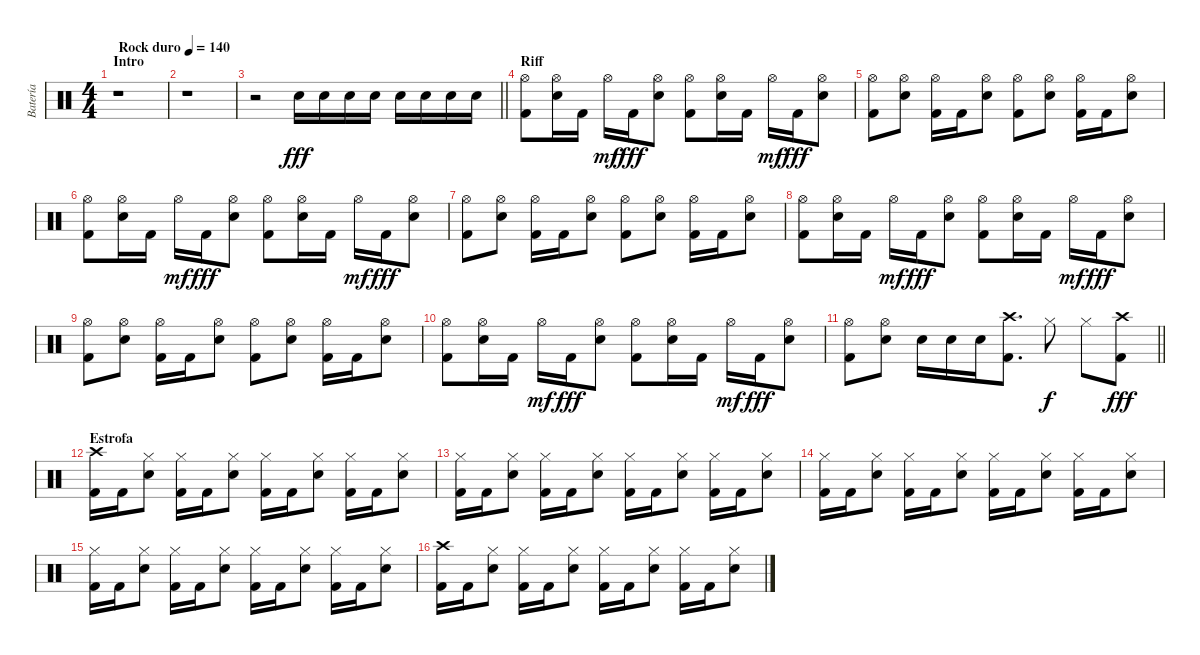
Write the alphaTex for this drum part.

\track ("Batería" "Batería") {instrument percussion}
\staff {score}
\articulation defaults
\ts (4 4)
\section ("" "Intro")
\tempo (140 "Rock duro")
\clef neutral
\ks c
r.1{dy fff} |
r.1 |
\barLineRight lightlight
r.2 "Electric Snare (hit)".16 "Electric Snare (hit)".16 "Electric Snare (hit)".16 "Electric Snare (hit)".16 "Electric Snare (hit)".16 "Electric Snare (hit)".16 "Electric Snare (hit)".16 "Electric Snare (hit)".16 |
\section ("" "Riff")
("Hi-Hat (open)" "Kick (hit) 2").8 ("Hi-Hat (open)" "Electric Snare (hit)").16 "Kick (hit) 2".16 "Hi-Hat (open)".16{dy mf} "Kick (hit) 2".16{dy fff} ("Hi-Hat (open)" "Electric Snare (hit)").8 ("Hi-Hat (open)" "Kick (hit) 2").8 ("Hi-Hat (open)" "Electric Snare (hit)").16 "Kick (hit) 2".16 "Hi-Hat (open)".16{dy mf} "Kick (hit) 2".16{dy fff} ("Hi-Hat (open)" "Electric Snare (hit)").8 |
("Hi-Hat (open)" "Kick (hit) 2").8 ("Hi-Hat (open)" "Electric Snare (hit)").8 ("Hi-Hat (open)" "Kick (hit) 2").16 "Kick (hit) 2".16 ("Hi-Hat (open)" "Electric Snare (hit)").8 ("Hi-Hat (open)" "Kick (hit) 2").8 ("Hi-Hat (open)" "Electric Snare (hit)").8 ("Hi-Hat (open)" "Kick (hit) 2").16 "Kick (hit) 2".16 ("Hi-Hat (open)" "Electric Snare (hit)").8 |
("Hi-Hat (open)" "Kick (hit) 2").8 ("Hi-Hat (open)" "Electric Snare (hit)").16 "Kick (hit) 2".16 "Hi-Hat (open)".16{dy mf} "Kick (hit) 2".16{dy fff} ("Hi-Hat (open)" "Electric Snare (hit)").8 ("Hi-Hat (open)" "Kick (hit) 2").8 ("Hi-Hat (open)" "Electric Snare (hit)").16 "Kick (hit) 2".16 "Hi-Hat (open)".16{dy mf} "Kick (hit) 2".16{dy fff} ("Hi-Hat (open)" "Electric Snare (hit)").8 |
("Hi-Hat (open)" "Kick (hit) 2").8 ("Hi-Hat (open)" "Electric Snare (hit)").8 ("Hi-Hat (open)" "Kick (hit) 2").16 "Kick (hit) 2".16 ("Hi-Hat (open)" "Electric Snare (hit)").8 ("Hi-Hat (open)" "Kick (hit) 2").8 ("Hi-Hat (open)" "Electric Snare (hit)").8 ("Hi-Hat (open)" "Kick (hit) 2").16 "Kick (hit) 2".16 ("Hi-Hat (open)" "Electric Snare (hit)").8 |
("Hi-Hat (open)" "Kick (hit) 2").8 ("Hi-Hat (open)" "Electric Snare (hit)").16 "Kick (hit) 2".16 "Hi-Hat (open)".16{dy mf} "Kick (hit) 2".16{dy fff} ("Hi-Hat (open)" "Electric Snare (hit)").8 ("Hi-Hat (open)" "Kick (hit) 2").8 ("Hi-Hat (open)" "Electric Snare (hit)").16 "Kick (hit) 2".16 "Hi-Hat (open)".16{dy mf} "Kick (hit) 2".16{dy fff} ("Hi-Hat (open)" "Electric Snare (hit)").8 |
("Hi-Hat (open)" "Kick (hit) 2").8 ("Hi-Hat (open)" "Electric Snare (hit)").8 ("Hi-Hat (open)" "Kick (hit) 2").16 "Kick (hit) 2".16 ("Hi-Hat (open)" "Electric Snare (hit)").8 ("Hi-Hat (open)" "Kick (hit) 2").8 ("Hi-Hat (open)" "Electric Snare (hit)").8 ("Hi-Hat (open)" "Kick (hit) 2").16 "Kick (hit) 2".16 ("Hi-Hat (open)" "Electric Snare (hit)").8 |
("Hi-Hat (open)" "Kick (hit) 2").8 ("Hi-Hat (open)" "Electric Snare (hit)").16 "Kick (hit) 2".16 "Hi-Hat (open)".16{dy mf} "Kick (hit) 2".16{dy fff} ("Hi-Hat (open)" "Electric Snare (hit)").8 ("Hi-Hat (open)" "Kick (hit) 2").8 ("Hi-Hat (open)" "Electric Snare (hit)").16 "Kick (hit) 2".16 "Hi-Hat (open)".16{dy mf} "Kick (hit) 2".16{dy fff} ("Hi-Hat (open)" "Electric Snare (hit)").8 |
\barLineRight lightlight
("Hi-Hat (open)" "Kick (hit) 2").8 ("Hi-Hat (open)" "Electric Snare (hit)").8 "Electric Snare (hit)".16 "Electric Snare (hit)".16 "Electric Snare (hit)".16 ("Crash high (hit)" "Kick (hit) 2").8{d} "Hi-Hat (closed)".8{dy f} "Hi-Hat (closed)".8 ("Crash high (hit)" "Kick (hit) 2").8{dy fff} |
\section ("" "Estrofa")
("Crash high (hit)" "Kick (hit) 2").16 "Kick (hit) 2".16 ("Hi-Hat (closed)" "Electric Snare (hit)").8 ("Hi-Hat (closed)" "Kick (hit) 2").16 "Kick (hit) 2".16 ("Hi-Hat (closed)" "Electric Snare (hit)").8 ("Hi-Hat (closed)" "Kick (hit) 2").16 "Kick (hit) 2".16 ("Hi-Hat (closed)" "Electric Snare (hit)").8 ("Hi-Hat (closed)" "Kick (hit) 2").16 "Kick (hit) 2".16 ("Hi-Hat (closed)" "Electric Snare (hit)").8 |
("Hi-Hat (closed)" "Kick (hit) 2").16 "Kick (hit) 2".16 ("Hi-Hat (closed)" "Electric Snare (hit)").8 ("Hi-Hat (closed)" "Kick (hit) 2").16 "Kick (hit) 2".16 ("Hi-Hat (closed)" "Electric Snare (hit)").8 ("Hi-Hat (closed)" "Kick (hit) 2").16 "Kick (hit) 2".16 ("Hi-Hat (closed)" "Electric Snare (hit)").8 ("Hi-Hat (closed)" "Kick (hit) 2").16 "Kick (hit) 2".16 ("Hi-Hat (closed)" "Electric Snare (hit)").8 |
("Hi-Hat (closed)" "Kick (hit) 2").16 "Kick (hit) 2".16 ("Hi-Hat (closed)" "Electric Snare (hit)").8 ("Hi-Hat (closed)" "Kick (hit) 2").16 "Kick (hit) 2".16 ("Hi-Hat (closed)" "Electric Snare (hit)").8 ("Hi-Hat (closed)" "Kick (hit) 2").16 "Kick (hit) 2".16 ("Hi-Hat (closed)" "Electric Snare (hit)").8 ("Hi-Hat (closed)" "Kick (hit) 2").16 "Kick (hit) 2".16 ("Hi-Hat (closed)" "Electric Snare (hit)").8 |
("Hi-Hat (closed)" "Kick (hit) 2").16 "Kick (hit) 2".16 ("Hi-Hat (closed)" "Electric Snare (hit)").8 ("Hi-Hat (closed)" "Kick (hit) 2").16 "Kick (hit) 2".16 ("Hi-Hat (closed)" "Electric Snare (hit)").8 ("Hi-Hat (closed)" "Kick (hit) 2").16 "Kick (hit) 2".16 ("Hi-Hat (closed)" "Electric Snare (hit)").8 ("Hi-Hat (closed)" "Kick (hit) 2").16 "Kick (hit) 2".16 ("Hi-Hat (closed)" "Electric Snare (hit)").8 |
("Crash high (hit)" "Kick (hit) 2").16 "Kick (hit) 2".16 ("Hi-Hat (closed)" "Electric Snare (hit)").8 ("Hi-Hat (closed)" "Kick (hit) 2").16 "Kick (hit) 2".16 ("Hi-Hat (closed)" "Electric Snare (hit)").8 ("Hi-Hat (closed)" "Kick (hit) 2").16 "Kick (hit) 2".16 ("Hi-Hat (closed)" "Electric Snare (hit)").8 ("Hi-Hat (closed)" "Kick (hit) 2").16 "Kick (hit) 2".16 ("Hi-Hat (closed)" "Electric Snare (hit)").8
